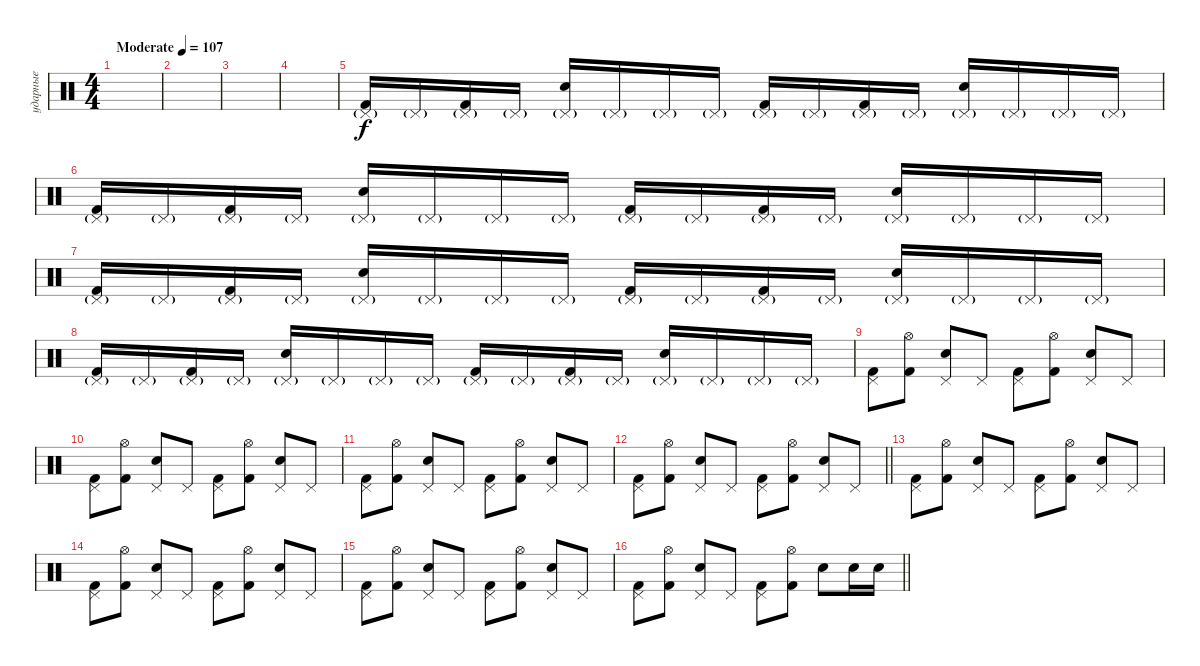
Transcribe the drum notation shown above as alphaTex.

\track ("ударные" "ударные") {instrument percussion}
\staff {score}
\articulation defaults
\ts (4 4)
\tempo (107 "Moderate")
\clef neutral
\ks c
|
|
|
|
("Kick (hit) 2" "Pedal Hi-Hat (hit)"{g}).16 "Pedal Hi-Hat (hit)"{g}.16 ("Kick (hit) 2" "Pedal Hi-Hat (hit)"{g}).16 "Pedal Hi-Hat (hit)"{g}.16 ("Hand Clap (hit)" "Pedal Hi-Hat (hit)"{g}).16 "Pedal Hi-Hat (hit)"{g}.16 "Pedal Hi-Hat (hit)"{g}.16 "Pedal Hi-Hat (hit)"{g}.16 ("Kick (hit) 2" "Pedal Hi-Hat (hit)"{g}).16 "Pedal Hi-Hat (hit)"{g}.16 ("Kick (hit) 2" "Pedal Hi-Hat (hit)"{g}).16 "Pedal Hi-Hat (hit)"{g}.16 ("Hand Clap (hit)" "Pedal Hi-Hat (hit)"{g}).16 "Pedal Hi-Hat (hit)"{g}.16 "Pedal Hi-Hat (hit)"{g}.16 "Pedal Hi-Hat (hit)"{g}.16 |
("Kick (hit) 2" "Pedal Hi-Hat (hit)"{g}).16 "Pedal Hi-Hat (hit)"{g}.16 ("Kick (hit) 2" "Pedal Hi-Hat (hit)"{g}).16 "Pedal Hi-Hat (hit)"{g}.16 ("Hand Clap (hit)" "Pedal Hi-Hat (hit)"{g}).16 "Pedal Hi-Hat (hit)"{g}.16 "Pedal Hi-Hat (hit)"{g}.16 "Pedal Hi-Hat (hit)"{g}.16 ("Kick (hit) 2" "Pedal Hi-Hat (hit)"{g}).16 "Pedal Hi-Hat (hit)"{g}.16 ("Kick (hit) 2" "Pedal Hi-Hat (hit)"{g}).16 "Pedal Hi-Hat (hit)"{g}.16 ("Hand Clap (hit)" "Pedal Hi-Hat (hit)"{g}).16 "Pedal Hi-Hat (hit)"{g}.16 "Pedal Hi-Hat (hit)"{g}.16 "Pedal Hi-Hat (hit)"{g}.16 |
("Kick (hit) 2" "Pedal Hi-Hat (hit)"{g}).16 "Pedal Hi-Hat (hit)"{g}.16 ("Kick (hit) 2" "Pedal Hi-Hat (hit)"{g}).16 "Pedal Hi-Hat (hit)"{g}.16 ("Hand Clap (hit)" "Pedal Hi-Hat (hit)"{g}).16 "Pedal Hi-Hat (hit)"{g}.16 "Pedal Hi-Hat (hit)"{g}.16 "Pedal Hi-Hat (hit)"{g}.16 ("Kick (hit) 2" "Pedal Hi-Hat (hit)"{g}).16 "Pedal Hi-Hat (hit)"{g}.16 ("Kick (hit) 2" "Pedal Hi-Hat (hit)"{g}).16 "Pedal Hi-Hat (hit)"{g}.16 ("Hand Clap (hit)" "Pedal Hi-Hat (hit)"{g}).16 "Pedal Hi-Hat (hit)"{g}.16 "Pedal Hi-Hat (hit)"{g}.16 "Pedal Hi-Hat (hit)"{g}.16 |
("Kick (hit) 2" "Pedal Hi-Hat (hit)"{g}).16 "Pedal Hi-Hat (hit)"{g}.16 ("Kick (hit) 2" "Pedal Hi-Hat (hit)"{g}).16 "Pedal Hi-Hat (hit)"{g}.16 ("Hand Clap (hit)" "Pedal Hi-Hat (hit)"{g}).16 "Pedal Hi-Hat (hit)"{g}.16 "Pedal Hi-Hat (hit)"{g}.16 "Pedal Hi-Hat (hit)"{g}.16 ("Kick (hit) 2" "Pedal Hi-Hat (hit)"{g}).16 "Pedal Hi-Hat (hit)"{g}.16 ("Kick (hit) 2" "Pedal Hi-Hat (hit)"{g}).16 "Pedal Hi-Hat (hit)"{g}.16 ("Hand Clap (hit)" "Pedal Hi-Hat (hit)"{g}).16 "Pedal Hi-Hat (hit)"{g}.16 "Pedal Hi-Hat (hit)"{g}.16 "Pedal Hi-Hat (hit)"{g}.16 |
("Kick (hit) 2" "Pedal Hi-Hat (hit)").8{dy f} ("Kick (hit) 2" "Hi-Hat (open)").8 ("Pedal Hi-Hat (hit)" "Snare (hit) 2").8 "Pedal Hi-Hat (hit)".8 ("Kick (hit) 2" "Pedal Hi-Hat (hit)").8 ("Kick (hit) 2" "Hi-Hat (open)").8 ("Pedal Hi-Hat (hit)" "Snare (hit) 2").8 "Pedal Hi-Hat (hit)".8 |
("Kick (hit) 2" "Pedal Hi-Hat (hit)").8 ("Kick (hit) 2" "Hi-Hat (open)").8 ("Pedal Hi-Hat (hit)" "Snare (hit) 2").8 "Pedal Hi-Hat (hit)".8 ("Kick (hit) 2" "Pedal Hi-Hat (hit)").8 ("Kick (hit) 2" "Hi-Hat (open)").8 ("Pedal Hi-Hat (hit)" "Snare (hit) 2").8 "Pedal Hi-Hat (hit)".8 |
("Kick (hit) 2" "Pedal Hi-Hat (hit)").8 ("Kick (hit) 2" "Hi-Hat (open)").8 ("Pedal Hi-Hat (hit)" "Snare (hit) 2").8 "Pedal Hi-Hat (hit)".8 ("Kick (hit) 2" "Pedal Hi-Hat (hit)").8 ("Kick (hit) 2" "Hi-Hat (open)").8 ("Pedal Hi-Hat (hit)" "Snare (hit) 2").8 "Pedal Hi-Hat (hit)".8 |
\barLineRight lightlight
("Kick (hit) 2" "Pedal Hi-Hat (hit)").8 ("Kick (hit) 2" "Hi-Hat (open)").8 ("Pedal Hi-Hat (hit)" "Snare (hit) 2").8 "Pedal Hi-Hat (hit)".8 ("Kick (hit) 2" "Pedal Hi-Hat (hit)").8 ("Kick (hit) 2" "Hi-Hat (open)").8 ("Pedal Hi-Hat (hit)" "Snare (hit) 2").8 "Pedal Hi-Hat (hit)".8 |
("Kick (hit) 2" "Pedal Hi-Hat (hit)").8 ("Kick (hit) 2" "Hi-Hat (open)").8 ("Pedal Hi-Hat (hit)" "Snare (hit) 2").8 "Pedal Hi-Hat (hit)".8 ("Kick (hit) 2" "Pedal Hi-Hat (hit)").8 ("Kick (hit) 2" "Hi-Hat (open)").8 ("Pedal Hi-Hat (hit)" "Snare (hit) 2").8 "Pedal Hi-Hat (hit)".8 |
("Kick (hit) 2" "Pedal Hi-Hat (hit)").8 ("Kick (hit) 2" "Hi-Hat (open)").8 ("Pedal Hi-Hat (hit)" "Snare (hit) 2").8 "Pedal Hi-Hat (hit)".8 ("Kick (hit) 2" "Pedal Hi-Hat (hit)").8 ("Kick (hit) 2" "Hi-Hat (open)").8 ("Pedal Hi-Hat (hit)" "Snare (hit) 2").8 "Pedal Hi-Hat (hit)".8 |
("Kick (hit) 2" "Pedal Hi-Hat (hit)").8 ("Kick (hit) 2" "Hi-Hat (open)").8 ("Pedal Hi-Hat (hit)" "Snare (hit) 2").8 "Pedal Hi-Hat (hit)".8 ("Kick (hit) 2" "Pedal Hi-Hat (hit)").8 ("Kick (hit) 2" "Hi-Hat (open)").8 ("Pedal Hi-Hat (hit)" "Snare (hit) 2").8 "Pedal Hi-Hat (hit)".8 |
\barLineRight lightlight
("Kick (hit) 2" "Pedal Hi-Hat (hit)").8 ("Kick (hit) 2" "Hi-Hat (open)").8 ("Pedal Hi-Hat (hit)" "Snare (hit) 2").8 "Pedal Hi-Hat (hit)".8 ("Kick (hit) 2" "Pedal Hi-Hat (hit)").8 ("Kick (hit) 2" "Hi-Hat (open)").8 "Snare (hit) 2".8 "Snare (hit) 2".16 "Snare (hit) 2".16
